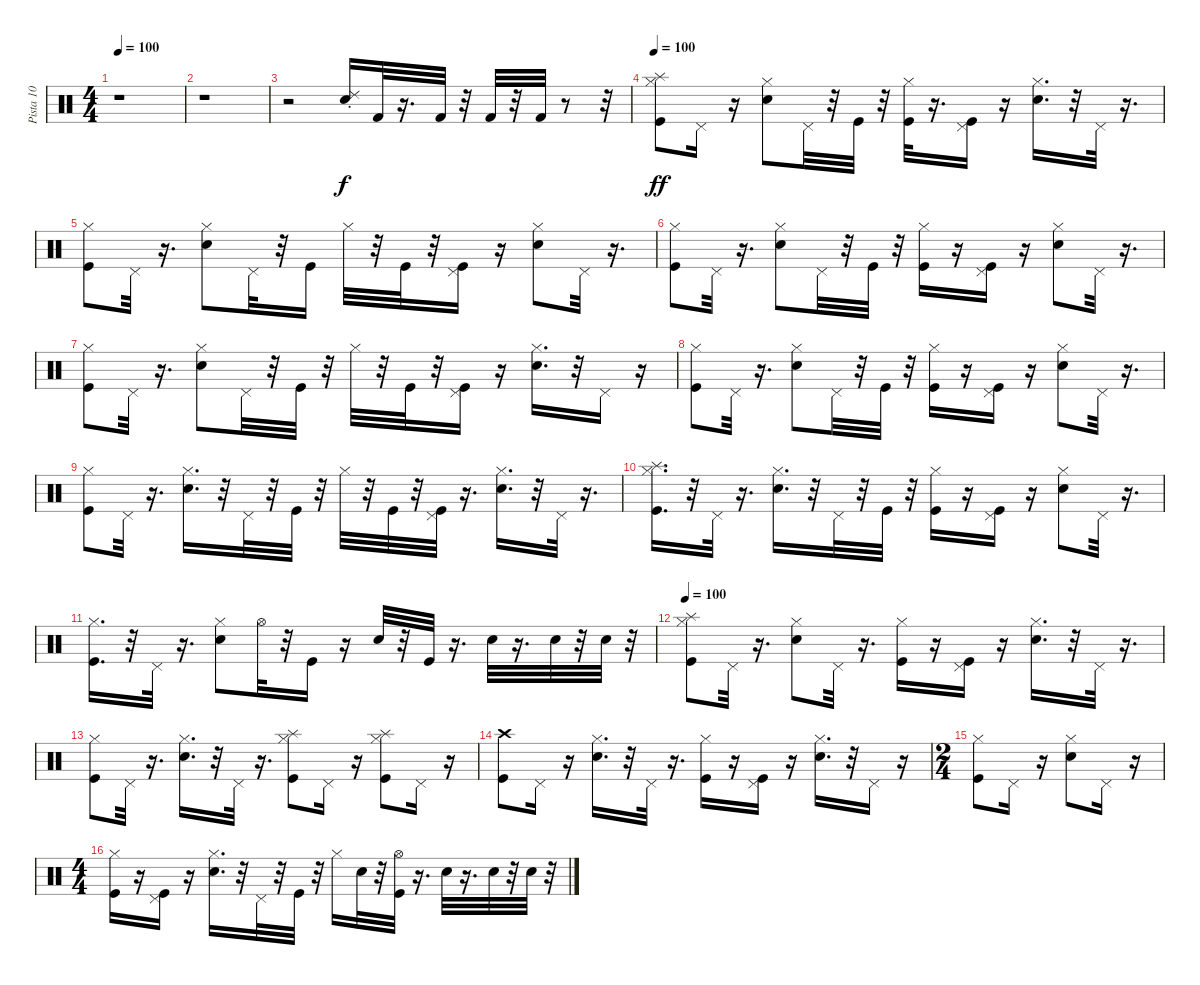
\track ("Pista 10" "Pista 10") {instrument percussion}
\staff {score}
\articulation defaults
\ts (4 4)
\tempo 100
\clef neutral
\ks c
r.1{dy ff} |
r.1 |
r.2 ("Snare (hit) 2" "Ride (choke) 2").16{dy f} "Kick (hit) 2".32 r.16{d} "Kick (hit) 2".32 r.32 "Kick (hit) 2".32 r.32 "Kick (hit) 2".32 r.8 r.32 |
\tempo 100
("Kick (hit)" "Hi-Hat (closed)" "Splash (hit)").8{dy ff} "Pedal Hi-Hat (hit)".16 r.16 ("Snare (hit) 2" "Hi-Hat (closed)").8 "Pedal Hi-Hat (hit)".32 r.32 "Kick (hit)".32 r.32 ("Kick (hit)" "Hi-Hat (closed)").32 r.16{d} ("Kick (hit)" "Pedal Hi-Hat (hit)").16 r.16 ("Snare (hit) 2" "Hi-Hat (closed)").16{d} r.32 "Pedal Hi-Hat (hit)".32 r.16{d} |
("Kick (hit)" "Hi-Hat (closed)").8 "Pedal Hi-Hat (hit)".32 r.16{d} ("Snare (hit) 2" "Hi-Hat (closed)").8 "Pedal Hi-Hat (hit)".32 r.32 "Kick (hit)".16 "Hi-Hat (closed)".32 r.32 "Kick (hit)".32 r.32 ("Kick (hit)" "Pedal Hi-Hat (hit)").16 r.16 ("Snare (hit) 2" "Hi-Hat (closed)").8 "Pedal Hi-Hat (hit)".32 r.16{d} |
("Kick (hit)" "Hi-Hat (closed)").8 "Pedal Hi-Hat (hit)".32 r.16{d} ("Snare (hit) 2" "Hi-Hat (closed)").8 "Pedal Hi-Hat (hit)".32 r.32 "Kick (hit)".32 r.32 ("Kick (hit)" "Hi-Hat (closed)").16 r.16 ("Kick (hit)" "Pedal Hi-Hat (hit)").16 r.16 ("Snare (hit) 2" "Hi-Hat (closed)").8 "Pedal Hi-Hat (hit)".32 r.16{d} |
("Kick (hit)" "Hi-Hat (closed)").8 "Pedal Hi-Hat (hit)".32 r.16{d} ("Snare (hit) 2" "Hi-Hat (closed)").8 "Pedal Hi-Hat (hit)".32 r.32 "Kick (hit)".32 r.32 "Hi-Hat (closed)".32 r.32 "Kick (hit)".32 r.32 ("Kick (hit)" "Pedal Hi-Hat (hit)").16 r.16 ("Snare (hit) 2" "Hi-Hat (closed)").16{d} r.32 "Pedal Hi-Hat (hit)".16 r.16 |
("Kick (hit)" "Hi-Hat (closed)").8 "Pedal Hi-Hat (hit)".32 r.16{d} ("Snare (hit) 2" "Hi-Hat (closed)").8 "Pedal Hi-Hat (hit)".32 r.32 "Kick (hit)".32 r.32 ("Kick (hit)" "Hi-Hat (closed)").16 r.16 ("Kick (hit)" "Pedal Hi-Hat (hit)").16 r.16 ("Snare (hit) 2" "Hi-Hat (closed)").8 "Pedal Hi-Hat (hit)".32 r.16{d} |
("Kick (hit)" "Hi-Hat (closed)").8 "Pedal Hi-Hat (hit)".32 r.16{d} ("Snare (hit) 2" "Hi-Hat (closed)").16{d} r.32 "Pedal Hi-Hat (hit)".32 r.32 "Kick (hit)".32 r.32 "Hi-Hat (closed)".32 r.32 "Kick (hit)".32 r.32 ("Kick (hit)" "Pedal Hi-Hat (hit)").32 r.16{d} ("Snare (hit) 2" "Hi-Hat (closed)").16{d} r.32 "Pedal Hi-Hat (hit)".32 r.16{d} |
("Kick (hit)" "Splash (hit)" "Hi-Hat (closed)").16{d} r.32 "Pedal Hi-Hat (hit)".32 r.16{d} ("Snare (hit) 2" "Hi-Hat (closed)").16{d} r.32 "Pedal Hi-Hat (hit)".32 r.32 "Kick (hit)".32 r.32 ("Kick (hit)" "Hi-Hat (closed)").16 r.16 ("Kick (hit)" "Pedal Hi-Hat (hit)").16 r.16 ("Snare (hit) 2" "Hi-Hat (closed)").8 "Pedal Hi-Hat (hit)".32 r.16{d} |
("Kick (hit)" "Hi-Hat (closed)").16{d} r.32 "Pedal Hi-Hat (hit)".32 r.16{d} ("Snare (hit) 2" "Hi-Hat (closed)").8 "Hi-Hat (open)".32 r.32 "Kick (hit)".16 r.16 "Snare (hit) 2".32 r.32 "Kick (hit)".32 r.16{d} "Snare (hit) 2".32 r.16{d} "Snare (hit) 2".32 r.32 "Snare (hit) 2".32 r.32 |
\tempo 100
("Splash (hit)" "Hi-Hat (closed)" "Kick (hit)").8 "Pedal Hi-Hat (hit)".32 r.16{d} ("Hi-Hat (closed)" "Snare (hit) 2").8 "Pedal Hi-Hat (hit)".32 r.16{d} ("Hi-Hat (closed)" "Kick (hit)").16 r.16 ("Pedal Hi-Hat (hit)" "Kick (hit)").16 r.16 ("Hi-Hat (closed)" "Snare (hit) 2").16{d} r.32 "Pedal Hi-Hat (hit)".32 r.16{d} |
("Hi-Hat (closed)" "Kick (hit)").8 "Pedal Hi-Hat (hit)".32 r.16{d} ("Hi-Hat (closed)" "Snare (hit) 2").16{d} r.32 "Pedal Hi-Hat (hit)".32 r.16{d} ("Splash (hit)" "Hi-Hat (closed)" "Kick (hit)").8 "Pedal Hi-Hat (hit)".16 r.16 ("Hi-Hat (closed)" "Splash (hit)" "Kick (hit)").8 "Pedal Hi-Hat (hit)".16 r.16 |
("Crash high (hit)" "Kick (hit)").8 "Pedal Hi-Hat (hit)".16 r.16 ("Hi-Hat (closed)" "Snare (hit) 2").16{d} r.32 "Pedal Hi-Hat (hit)".32 r.16{d} ("Hi-Hat (closed)" "Kick (hit)").16 r.16 ("Pedal Hi-Hat (hit)" "Kick (hit)").16 r.16 ("Hi-Hat (closed)" "Snare (hit) 2").16{d} r.32 "Pedal Hi-Hat (hit)".16 r.16 |
\ts (2 4)
("Hi-Hat (closed)" "Kick (hit)").8 "Pedal Hi-Hat (hit)".16 r.16 ("Hi-Hat (closed)" "Snare (hit) 2").8 "Pedal Hi-Hat (hit)".16 r.16 |
\ts (4 4)
("Hi-Hat (closed)" "Kick (hit)").16 r.16 ("Pedal Hi-Hat (hit)" "Kick (hit)").16 r.16 ("Hi-Hat (closed)" "Snare (hit) 2").16{d} r.32 "Pedal Hi-Hat (hit)".32 r.32 "Kick (hit)".32 r.32 "Hi-Hat (closed)".16 "Snare (hit) 2".32 r.32 ("Hi-Hat (open)" "Kick (hit)").32 r.16{d} "Snare (hit) 2".32 r.16{d} "Snare (hit) 2".32 r.32 "Snare (hit) 2".32 r.32
